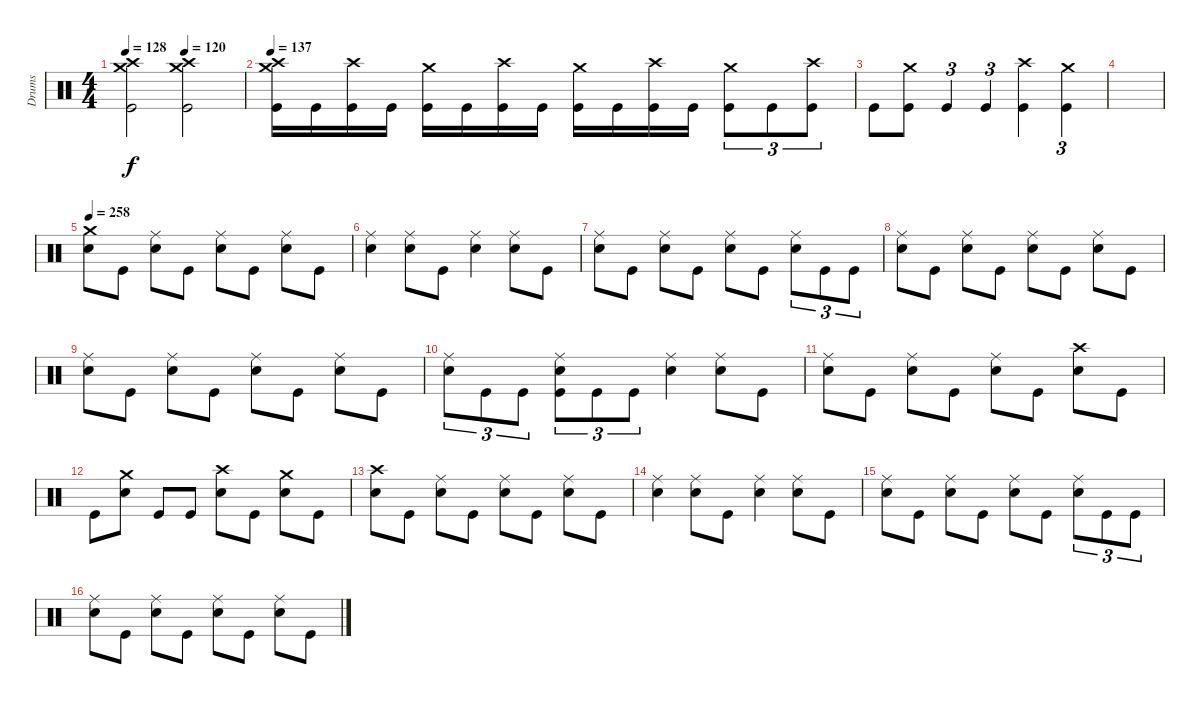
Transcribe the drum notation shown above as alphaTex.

\track ("Drums" "Drums") {instrument percussion}
\staff {score}
\articulation defaults
\ts (4 4)
\tempo 128
\tempo (120 0.5)
\clef neutral
\ks c
("Crash medium (hit)" "Kick (hit)" "Crash high (hit)").2{dy f} ("Crash medium (hit)" "Kick (hit)" "Crash high (hit)").2 |
\tempo 137
("Crash medium (hit)" "Kick (hit)" "Crash high (hit)").16 "Kick (hit)".16 ("Kick (hit)" "Crash high (hit)").16 "Kick (hit)".16 ("Crash medium (hit)" "Kick (hit)").16 "Kick (hit)".16 ("Kick (hit)" "Crash high (hit)").16 "Kick (hit)".16 ("Crash medium (hit)" "Kick (hit)").16 "Kick (hit)".16 ("Kick (hit)" "Crash high (hit)").16 "Kick (hit)".16 ("Crash medium (hit)" "Kick (hit)").8{tu (3 2)} "Kick (hit)".8{tu (3 2)} ("Kick (hit)" "Crash high (hit)").8{tu (3 2)} |
"Kick (hit)".8 ("Crash medium (hit)" "Kick (hit)").8 "Kick (hit)".4{tu (3 2)} "Kick (hit)".4{tu (3 2)} ("Kick (hit)" "Crash high (hit)").4 ("Crash medium (hit)" "Kick (hit)").4{tu (3 2)} |
|
\tempo 258
("Snare (hit) 2" "Crash medium (hit)").8 "Kick (hit)".8 ("Snare (hit) 2" "Ride (middle)").8 "Kick (hit)".8 ("Snare (hit) 2" "Ride (middle)").8 "Kick (hit)".8 ("Snare (hit) 2" "Ride (middle)").8 "Kick (hit)".8 |
("Snare (hit) 2" "Ride (middle)").4 ("Snare (hit) 2" "Ride (middle)").8 "Kick (hit)".8 ("Snare (hit) 2" "Ride (middle)").4 ("Snare (hit) 2" "Ride (middle)").8 "Kick (hit)".8 |
("Snare (hit) 2" "Ride (middle)").8 "Kick (hit)".8 ("Snare (hit) 2" "Ride (middle)").8 "Kick (hit)".8 ("Snare (hit) 2" "Ride (middle)").8 "Kick (hit)".8 ("Snare (hit) 2" "Ride (middle)").8{tu (3 2)} "Kick (hit)".8{tu (3 2)} "Kick (hit)".8{tu (3 2)} |
("Snare (hit) 2" "Ride (middle)").8 "Kick (hit)".8 ("Snare (hit) 2" "Ride (middle)").8 "Kick (hit)".8 ("Snare (hit) 2" "Ride (middle)").8 "Kick (hit)".8 ("Snare (hit) 2" "Ride (middle)").8 "Kick (hit)".8 |
("Snare (hit) 2" "Ride (middle)").8 "Kick (hit)".8 ("Snare (hit) 2" "Ride (middle)").8 "Kick (hit)".8 ("Snare (hit) 2" "Ride (middle)").8 "Kick (hit)".8 ("Snare (hit) 2" "Ride (middle)").8 "Kick (hit)".8 |
("Snare (hit) 2" "Ride (middle)").8{tu (3 2)} "Kick (hit)".8{tu (3 2)} "Kick (hit)".8{tu (3 2)} ("Snare (hit) 2" "Kick (hit)" "Ride (middle)").8{tu (3 2)} "Kick (hit)".8{tu (3 2)} "Kick (hit)".8{tu (3 2)} ("Snare (hit) 2" "Ride (middle)").4 ("Snare (hit) 2" "Ride (middle)").8 "Kick (hit)".8 |
("Snare (hit) 2" "Ride (middle)").8 "Kick (hit)".8 ("Snare (hit) 2" "Ride (middle)").8 "Kick (hit)".8 ("Snare (hit) 2" "Ride (middle)").8 "Kick (hit)".8 ("Snare (hit) 2" "Crash high (hit)").8 "Kick (hit)".8 |
"Kick (hit)".8 ("Snare (hit) 2" "Crash medium (hit)").8 "Kick (hit)".8 "Kick (hit)".8 ("Snare (hit) 2" "Crash high (hit)").8 "Kick (hit)".8 ("Snare (hit) 2" "Crash medium (hit)").8 "Kick (hit)".8 |
("Snare (hit) 2" "Crash high (hit)").8 "Kick (hit)".8 ("Snare (hit) 2" "Ride (middle)").8 "Kick (hit)".8 ("Snare (hit) 2" "Ride (middle)").8 "Kick (hit)".8 ("Snare (hit) 2" "Ride (middle)").8 "Kick (hit)".8 |
("Snare (hit) 2" "Ride (middle)").4 ("Snare (hit) 2" "Ride (middle)").8 "Kick (hit)".8 ("Snare (hit) 2" "Ride (middle)").4 ("Snare (hit) 2" "Ride (middle)").8 "Kick (hit)".8 |
("Snare (hit) 2" "Ride (middle)").8 "Kick (hit)".8 ("Snare (hit) 2" "Ride (middle)").8 "Kick (hit)".8 ("Snare (hit) 2" "Ride (middle)").8 "Kick (hit)".8 ("Snare (hit) 2" "Ride (middle)").8{tu (3 2)} "Kick (hit)".8{tu (3 2)} "Kick (hit)".8{tu (3 2)} |
("Snare (hit) 2" "Ride (middle)").8 "Kick (hit)".8 ("Snare (hit) 2" "Ride (middle)").8 "Kick (hit)".8 ("Snare (hit) 2" "Ride (middle)").8 "Kick (hit)".8 ("Snare (hit) 2" "Ride (middle)").8 "Kick (hit)".8
